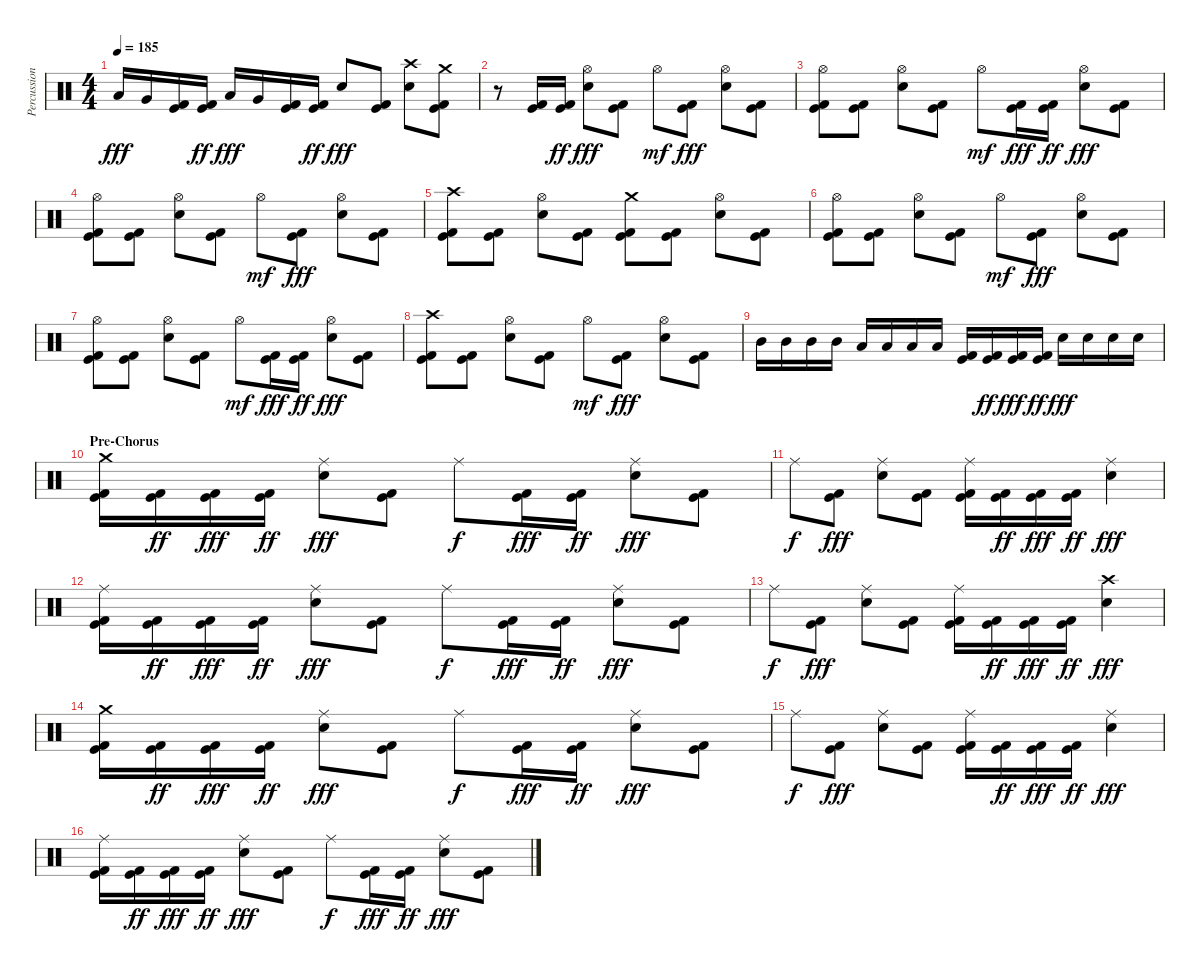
\track ("Percussion" "Percussion") {instrument percussion}
\staff {score}
\articulation defaults
\ts (4 4)
\tempo 185
\clef neutral
\ks c "Low Tom (hit)".16{dy fff} "Very Low Tom (hit)".16
("Kick (hit)" "Kick (hit) 2").16 ("Kick (hit)" "Kick (hit) 2").16{dy ff} "Low Tom (hit)".16{dy fff} "Very Low Tom (hit)".16 ("Kick (hit)" "Kick (hit) 2").16 ("Kick (hit)" "Kick (hit) 2").16{dy ff} "Snare (hit) 2".8{dy fff} ("Kick (hit)" "Kick (hit) 2").8 ("Crash high (hit)" "Snare (hit) 2").8 ("Crash medium (hit)" "Kick (hit)" "Kick (hit) 2").8 |
r.8 ("Kick (hit)" "Kick (hit) 2").16 ("Kick (hit)" "Kick (hit) 2").16{dy ff} ("Hi-Hat (open)" "Snare (hit) 2").8{dy fff} ("Kick (hit)" "Kick (hit) 2").8 "Hi-Hat (open)".8{dy mf} ("Kick (hit)" "Kick (hit) 2").8{dy fff} ("Hi-Hat (open)" "Snare (hit) 2").8 ("Kick (hit)" "Kick (hit) 2").8 |
("Hi-Hat (open)" "Kick (hit)" "Kick (hit) 2").8 ("Kick (hit)" "Kick (hit) 2").8 ("Hi-Hat (open)" "Snare (hit) 2").8 ("Kick (hit)" "Kick (hit) 2").8 "Hi-Hat (open)".8{dy mf} ("Kick (hit)" "Kick (hit) 2").16{dy fff} ("Kick (hit)" "Kick (hit) 2").16{dy ff} ("Hi-Hat (open)" "Snare (hit) 2").8{dy fff} ("Kick (hit)" "Kick (hit) 2").8 |
("Hi-Hat (open)" "Kick (hit)" "Kick (hit) 2").8 ("Kick (hit)" "Kick (hit) 2").8 ("Hi-Hat (open)" "Snare (hit) 2").8 ("Kick (hit)" "Kick (hit) 2").8 "Hi-Hat (open)".8{dy mf} ("Kick (hit)" "Kick (hit) 2").8{dy fff} ("Hi-Hat (open)" "Snare (hit) 2").8 ("Kick (hit)" "Kick (hit) 2").8 |
("Crash high (hit)" "Kick (hit)" "Kick (hit) 2").8 ("Kick (hit)" "Kick (hit) 2").8 ("Hi-Hat (open)" "Snare (hit) 2").8 ("Kick (hit)" "Kick (hit) 2").8 ("Crash medium (hit)" "Kick (hit)" "Kick (hit) 2").8 ("Kick (hit)" "Kick (hit) 2").8 ("Hi-Hat (open)" "Snare (hit) 2").8 ("Kick (hit)" "Kick (hit) 2").8 |
("Hi-Hat (open)" "Kick (hit)" "Kick (hit) 2").8 ("Kick (hit)" "Kick (hit) 2").8 ("Hi-Hat (open)" "Snare (hit) 2").8 ("Kick (hit)" "Kick (hit) 2").8 "Hi-Hat (open)".8{dy mf} ("Kick (hit)" "Kick (hit) 2").8{dy fff} ("Hi-Hat (open)" "Snare (hit) 2").8 ("Kick (hit)" "Kick (hit) 2").8 |
("Hi-Hat (open)" "Kick (hit)" "Kick (hit) 2").8 ("Kick (hit)" "Kick (hit) 2").8 ("Hi-Hat (open)" "Snare (hit) 2").8 ("Kick (hit)" "Kick (hit) 2").8 "Hi-Hat (open)".8{dy mf} ("Kick (hit)" "Kick (hit) 2").16{dy fff} ("Kick (hit)" "Kick (hit) 2").16{dy ff} ("Hi-Hat (open)" "Snare (hit) 2").8{dy fff} ("Kick (hit)" "Kick (hit) 2").8 |
("Crash high (hit)" "Kick (hit)" "Kick (hit) 2").8 ("Kick (hit)" "Kick (hit) 2").8 ("Hi-Hat (open)" "Snare (hit) 2").8 ("Kick (hit)" "Kick (hit) 2").8 "Hi-Hat (open)".8{dy mf} ("Kick (hit)" "Kick (hit) 2").8{dy fff} ("Hi-Hat (open)" "Snare (hit) 2").8 ("Kick (hit)" "Kick (hit) 2").8 |
"Mid Tom (hit)".16 "Mid Tom (hit)".16 "Mid Tom (hit)".16 "Mid Tom (hit)".16 "Low Tom (hit)".16 "Low Tom (hit)".16 "Low Tom (hit)".16 "Low Tom (hit)".16 ("Kick (hit)" "Kick (hit) 2").16 ("Kick (hit)" "Kick (hit) 2").16{dy ff} ("Kick (hit)" "Kick (hit) 2").16{dy fff} ("Kick (hit)" "Kick (hit) 2").16{dy ff} "Snare (hit) 2".16{dy fff} "Snare (hit) 2".16 "Snare (hit) 2".16 "Snare (hit) 2".16 |
\section ("" "Pre-Chorus")
("Crash medium (hit)" "Kick (hit)" "Kick (hit) 2").16 ("Kick (hit)" "Kick (hit) 2").16{dy ff} ("Kick (hit)" "Kick (hit) 2").16{dy fff} ("Kick (hit)" "Kick (hit) 2").16{dy ff} ("Ride (middle)" "Snare (hit) 2").8{dy fff} ("Kick (hit)" "Kick (hit) 2").8 "Ride (middle)".8{dy f} ("Kick (hit)" "Kick (hit) 2").16{dy fff} ("Kick (hit)" "Kick (hit) 2").16{dy ff} ("Ride (middle)" "Snare (hit) 2").8{dy fff} ("Kick (hit)" "Kick (hit) 2").8 |
"Ride (middle)".8{dy f} ("Kick (hit)" "Kick (hit) 2").8{dy fff} ("Ride (middle)" "Snare (hit) 2").8 ("Kick (hit)" "Kick (hit) 2").8 ("Ride (middle)" "Kick (hit)" "Kick (hit) 2").16 ("Kick (hit)" "Kick (hit) 2").16{dy ff} ("Kick (hit)" "Kick (hit) 2").16{dy fff} ("Kick (hit)" "Kick (hit) 2").16{dy ff} ("Ride (middle)" "Snare (hit) 2").4{dy fff} |
("Ride (middle)" "Kick (hit)" "Kick (hit) 2").16 ("Kick (hit)" "Kick (hit) 2").16{dy ff} ("Kick (hit)" "Kick (hit) 2").16{dy fff} ("Kick (hit)" "Kick (hit) 2").16{dy ff} ("Ride (middle)" "Snare (hit) 2").8{dy fff} ("Kick (hit)" "Kick (hit) 2").8 "Ride (middle)".8{dy f} ("Kick (hit)" "Kick (hit) 2").16{dy fff} ("Kick (hit)" "Kick (hit) 2").16{dy ff} ("Ride (middle)" "Snare (hit) 2").8{dy fff} ("Kick (hit)" "Kick (hit) 2").8 |
"Ride (middle)".8{dy f} ("Kick (hit)" "Kick (hit) 2").8{dy fff} ("Ride (middle)" "Snare (hit) 2").8 ("Kick (hit)" "Kick (hit) 2").8 ("Ride (middle)" "Kick (hit)" "Kick (hit) 2").16 ("Kick (hit)" "Kick (hit) 2").16{dy ff} ("Kick (hit)" "Kick (hit) 2").16{dy fff} ("Kick (hit)" "Kick (hit) 2").16{dy ff} ("Crash high (hit)" "Snare (hit) 2").4{dy fff} |
("Crash medium (hit)" "Kick (hit)" "Kick (hit) 2").16 ("Kick (hit)" "Kick (hit) 2").16{dy ff} ("Kick (hit)" "Kick (hit) 2").16{dy fff} ("Kick (hit)" "Kick (hit) 2").16{dy ff} ("Ride (middle)" "Snare (hit) 2").8{dy fff} ("Kick (hit)" "Kick (hit) 2").8 "Ride (middle)".8{dy f} ("Kick (hit)" "Kick (hit) 2").16{dy fff} ("Kick (hit)" "Kick (hit) 2").16{dy ff} ("Ride (middle)" "Snare (hit) 2").8{dy fff} ("Kick (hit)" "Kick (hit) 2").8 |
"Ride (middle)".8{dy f} ("Kick (hit)" "Kick (hit) 2").8{dy fff} ("Ride (middle)" "Snare (hit) 2").8 ("Kick (hit)" "Kick (hit) 2").8 ("Ride (middle)" "Kick (hit)" "Kick (hit) 2").16 ("Kick (hit)" "Kick (hit) 2").16{dy ff} ("Kick (hit)" "Kick (hit) 2").16{dy fff} ("Kick (hit)" "Kick (hit) 2").16{dy ff} ("Ride (middle)" "Snare (hit) 2").4{dy fff} |
("Ride (middle)" "Kick (hit)" "Kick (hit) 2").16 ("Kick (hit)" "Kick (hit) 2").16{dy ff} ("Kick (hit)" "Kick (hit) 2").16{dy fff} ("Kick (hit)" "Kick (hit) 2").16{dy ff} ("Ride (middle)" "Snare (hit) 2").8{dy fff} ("Kick (hit)" "Kick (hit) 2").8 "Ride (middle)".8{dy f} ("Kick (hit)" "Kick (hit) 2").16{dy fff} ("Kick (hit)" "Kick (hit) 2").16{dy ff} ("Ride (middle)" "Snare (hit) 2").8{dy fff} ("Kick (hit)" "Kick (hit) 2").8
